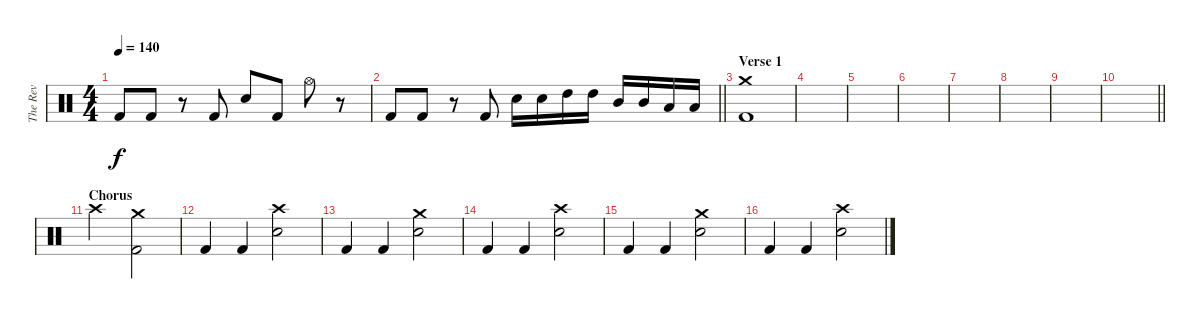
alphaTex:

\track ("The Rev" "The Rev") {instrument percussion}
\staff {score}
\articulation defaults
\ts (4 4)
\tempo 140
\clef neutral
\ks c "Kick (hit) 2".8{dy f} "Kick (hit) 2".8
r.8 "Kick (hit) 2".8 "Snare (hit) 2".8 "Kick (hit) 2".8 "Hi-Hat (open)".8 r.8 |
\barLineRight lightlight "Kick (hit) 2".8 "Kick (hit) 2".8
r.8 "Kick (hit) 2".8 "Snare (hit) 2".16 "Snare (hit) 2".16 "High Tom (hit)".16 "High Tom (hit)".16 "Mid Tom (hit)".16 "Mid Tom (hit)".16 "Low Tom (hit)".16 "Low Tom (hit)".16 |
\section ("" "Verse 1")
("Crash medium (hit)" "Kick (hit) 2").1 |
|
|
|
|
|
|
\barLineRight lightlight
|
\section ("" "Chorus")
"Crash high (hit)".2 ("Crash medium (hit)" "Kick (hit) 2").2 |
"Kick (hit) 2".4 "Kick (hit) 2".4 ("Crash high (hit)" "Snare (hit) 2").2 |
"Kick (hit) 2".4 "Kick (hit) 2".4 ("Crash medium (hit)" "Snare (hit) 2").2 |
"Kick (hit) 2".4 "Kick (hit) 2".4 ("Crash high (hit)" "Snare (hit) 2").2 |
"Kick (hit) 2".4 "Kick (hit) 2".4 ("Crash medium (hit)" "Snare (hit) 2").2 |
"Kick (hit) 2".4 "Kick (hit) 2".4 ("Crash high (hit)" "Snare (hit) 2").2
